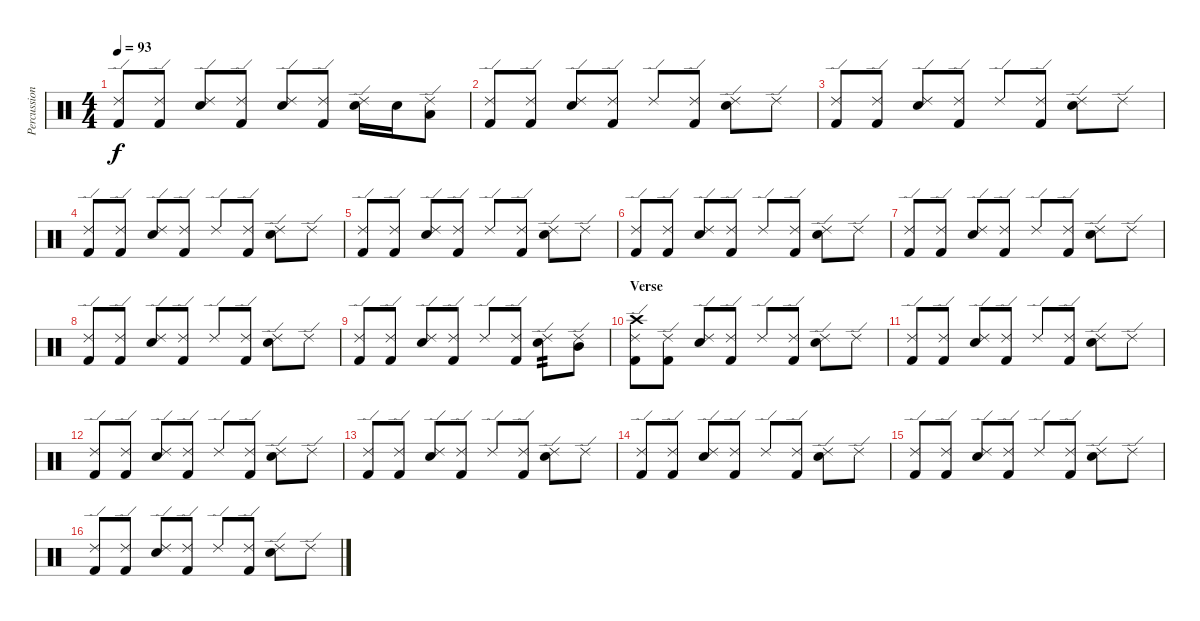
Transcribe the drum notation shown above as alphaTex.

\track ("Percussion" "Percussion") {instrument percussion}
\staff {score}
\articulation defaults
\ts (4 4)
\tempo 93
\clef neutral
\ks c
("Ride (edge) 2" "Kick (hit) 2").8{dy f} ("Ride (edge) 2" "Kick (hit) 2").8 ("Ride (edge) 2" "Electric Snare (hit)").8 ("Ride (edge) 2" "Kick (hit) 2").8 ("Ride (edge) 2" "Electric Snare (hit)").8 ("Ride (edge) 2" "Kick (hit) 2").8 ("Ride (edge) 2" "Electric Snare (hit)").16 "Electric Snare (hit)".16 ("Ride (edge) 2" "Low Tom (hit)").8 |
("Ride (edge) 2" "Kick (hit) 2").8 ("Ride (edge) 2" "Kick (hit) 2").8 ("Ride (edge) 2" "Electric Snare (hit)").8 ("Ride (edge) 2" "Kick (hit) 2").8 "Ride (edge) 2".8 ("Ride (edge) 2" "Kick (hit) 2").8 ("Ride (edge) 2" "Electric Snare (hit)").8 "Ride (edge) 2".8 |
("Ride (edge) 2" "Kick (hit) 2").8 ("Ride (edge) 2" "Kick (hit) 2").8 ("Ride (edge) 2" "Electric Snare (hit)").8 ("Ride (edge) 2" "Kick (hit) 2").8 "Ride (edge) 2".8 ("Ride (edge) 2" "Kick (hit) 2").8 ("Ride (edge) 2" "Electric Snare (hit)").8 "Ride (edge) 2".8 |
("Ride (edge) 2" "Kick (hit) 2").8 ("Ride (edge) 2" "Kick (hit) 2").8 ("Ride (edge) 2" "Electric Snare (hit)").8 ("Ride (edge) 2" "Kick (hit) 2").8 "Ride (edge) 2".8 ("Ride (edge) 2" "Kick (hit) 2").8 ("Ride (edge) 2" "Electric Snare (hit)").8 "Ride (edge) 2".8 |
("Ride (edge) 2" "Kick (hit) 2").8 ("Ride (edge) 2" "Kick (hit) 2").8 ("Ride (edge) 2" "Electric Snare (hit)").8 ("Ride (edge) 2" "Kick (hit) 2").8 "Ride (edge) 2".8 ("Ride (edge) 2" "Kick (hit) 2").8 ("Ride (edge) 2" "Electric Snare (hit)").8 "Ride (edge) 2".8 |
("Ride (edge) 2" "Kick (hit) 2").8 ("Ride (edge) 2" "Kick (hit) 2").8 ("Ride (edge) 2" "Electric Snare (hit)").8 ("Ride (edge) 2" "Kick (hit) 2").8 "Ride (edge) 2".8 ("Ride (edge) 2" "Kick (hit) 2").8 ("Ride (edge) 2" "Electric Snare (hit)").8 "Ride (edge) 2".8 |
("Ride (edge) 2" "Kick (hit) 2").8 ("Ride (edge) 2" "Kick (hit) 2").8 ("Ride (edge) 2" "Electric Snare (hit)").8 ("Ride (edge) 2" "Kick (hit) 2").8 "Ride (edge) 2".8 ("Ride (edge) 2" "Kick (hit) 2").8 ("Ride (edge) 2" "Electric Snare (hit)").8 "Ride (edge) 2".8 |
("Ride (edge) 2" "Kick (hit) 2").8 ("Ride (edge) 2" "Kick (hit) 2").8 ("Ride (edge) 2" "Electric Snare (hit)").8 ("Ride (edge) 2" "Kick (hit) 2").8 "Ride (edge) 2".8 ("Ride (edge) 2" "Kick (hit) 2").8 ("Ride (edge) 2" "Electric Snare (hit)").8 "Ride (edge) 2".8 |
("Ride (edge) 2" "Kick (hit) 2").8 ("Ride (edge) 2" "Kick (hit) 2").8 ("Ride (edge) 2" "Electric Snare (hit)").8 ("Ride (edge) 2" "Kick (hit) 2").8 "Ride (edge) 2".8 ("Ride (edge) 2" "Kick (hit) 2").8 ("Ride (edge) 2" "Electric Snare (hit)").8{tp 2} ("Ride (edge) 2" "Mid Tom (hit)").8 |
\section ("" "Verse")
("Ride (edge) 2" "Crash high (hit)" "Kick (hit) 2").8 ("Ride (edge) 2" "Kick (hit) 2").8 ("Ride (edge) 2" "Electric Snare (hit)").8 ("Ride (edge) 2" "Kick (hit) 2").8 "Ride (edge) 2".8 ("Ride (edge) 2" "Kick (hit) 2").8 ("Ride (edge) 2" "Electric Snare (hit)").8 "Ride (edge) 2".8 |
("Ride (edge) 2" "Kick (hit) 2").8 ("Ride (edge) 2" "Kick (hit) 2").8 ("Ride (edge) 2" "Electric Snare (hit)").8 ("Ride (edge) 2" "Kick (hit) 2").8 "Ride (edge) 2".8 ("Ride (edge) 2" "Kick (hit) 2").8 ("Ride (edge) 2" "Electric Snare (hit)").8 "Ride (edge) 2".8 |
("Ride (edge) 2" "Kick (hit) 2").8 ("Ride (edge) 2" "Kick (hit) 2").8 ("Ride (edge) 2" "Electric Snare (hit)").8 ("Ride (edge) 2" "Kick (hit) 2").8 "Ride (edge) 2".8 ("Ride (edge) 2" "Kick (hit) 2").8 ("Ride (edge) 2" "Electric Snare (hit)").8 "Ride (edge) 2".8 |
("Ride (edge) 2" "Kick (hit) 2").8 ("Ride (edge) 2" "Kick (hit) 2").8 ("Ride (edge) 2" "Electric Snare (hit)").8 ("Ride (edge) 2" "Kick (hit) 2").8 "Ride (edge) 2".8 ("Ride (edge) 2" "Kick (hit) 2").8 ("Ride (edge) 2" "Electric Snare (hit)").8 "Ride (edge) 2".8 |
("Ride (edge) 2" "Kick (hit) 2").8 ("Ride (edge) 2" "Kick (hit) 2").8 ("Ride (edge) 2" "Electric Snare (hit)").8 ("Ride (edge) 2" "Kick (hit) 2").8 "Ride (edge) 2".8 ("Ride (edge) 2" "Kick (hit) 2").8 ("Ride (edge) 2" "Electric Snare (hit)").8 "Ride (edge) 2".8 |
("Ride (edge) 2" "Kick (hit) 2").8 ("Ride (edge) 2" "Kick (hit) 2").8 ("Ride (edge) 2" "Electric Snare (hit)").8 ("Ride (edge) 2" "Kick (hit) 2").8 "Ride (edge) 2".8 ("Ride (edge) 2" "Kick (hit) 2").8 ("Ride (edge) 2" "Electric Snare (hit)").8 "Ride (edge) 2".8 |
("Ride (edge) 2" "Kick (hit) 2").8 ("Ride (edge) 2" "Kick (hit) 2").8 ("Ride (edge) 2" "Electric Snare (hit)").8 ("Ride (edge) 2" "Kick (hit) 2").8 "Ride (edge) 2".8 ("Ride (edge) 2" "Kick (hit) 2").8 ("Ride (edge) 2" "Electric Snare (hit)").8 "Ride (edge) 2".8
